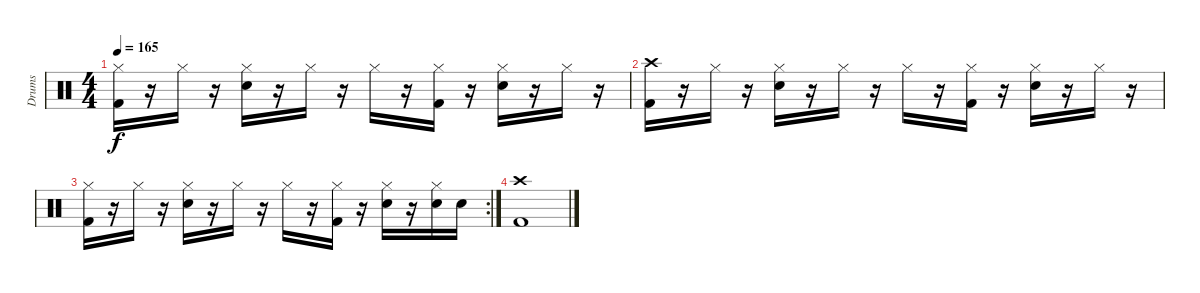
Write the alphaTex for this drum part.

\track ("Drums" "Drums") {instrument percussion}
\staff {score}
\articulation defaults
\ts (4 4)
\tempo 165
\clef neutral
\ks c
("Kick (hit) 2" "Hi-Hat (closed)").16{dy f} r.16 "Hi-Hat (closed)".16 r.16 ("Hi-Hat (closed)" "Snare (hit) 2").16 r.16 "Hi-Hat (closed)".16 r.16 "Hi-Hat (closed)".16 r.16 ("Hi-Hat (closed)" "Kick (hit) 2").16 r.16 ("Hi-Hat (closed)" "Snare (hit) 2").16 r.16 "Hi-Hat (closed)".16 r.16 |
("Kick (hit) 2" "Crash high (hit)").16 r.16 "Hi-Hat (closed)".16 r.16 ("Hi-Hat (closed)" "Snare (hit) 2").16 r.16 "Hi-Hat (closed)".16 r.16 "Hi-Hat (closed)".16 r.16 ("Hi-Hat (closed)" "Kick (hit) 2").16 r.16 ("Hi-Hat (closed)" "Snare (hit) 2").16 r.16 "Hi-Hat (closed)".16 r.16 |
\rc 2
("Kick (hit) 2" "Hi-Hat (closed)").16 r.16 "Hi-Hat (closed)".16 r.16 ("Hi-Hat (closed)" "Snare (hit) 2").16 r.16 "Hi-Hat (closed)".16 r.16 "Hi-Hat (closed)".16 r.16 ("Hi-Hat (closed)" "Kick (hit) 2").16 r.16 ("Hi-Hat (closed)" "Snare (hit) 2").16 r.16 ("Hi-Hat (closed)" "Snare (hit) 2").16 "Snare (hit) 2".16 |
("Kick (hit) 2" "Crash high (hit)").1
